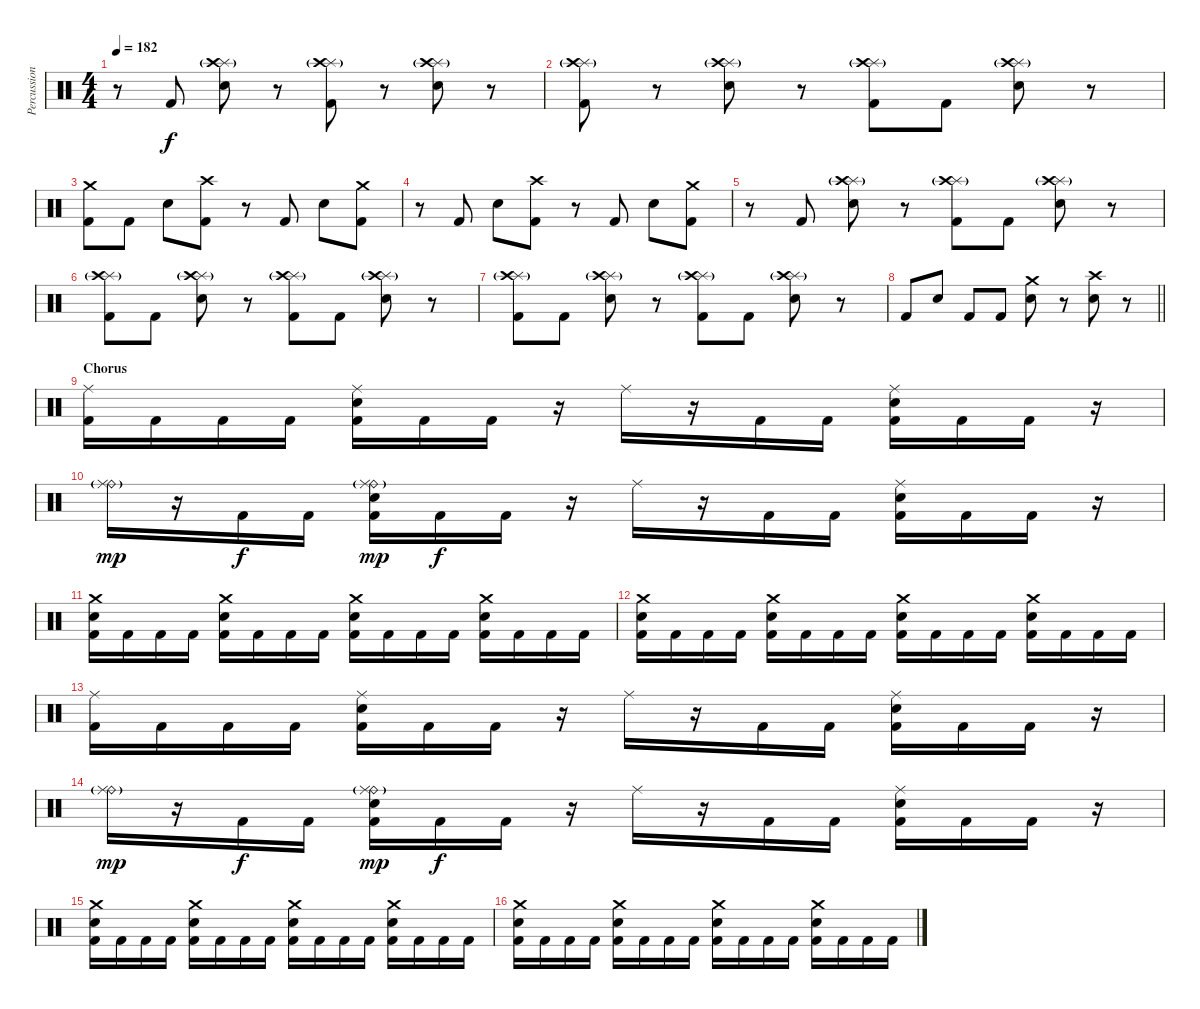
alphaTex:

\track ("Percussion" "Percussion") {instrument percussion}
\staff {score}
\articulation defaults
\ts (4 4)
\tempo 182
\clef neutral
\ks c
r.8{dy f} "Kick (hit) 2".8 ("Splash (hit)"{g} "Crash high (hit)" "Electric Snare (hit)").8 r.8 ("Splash (hit)"{g} "Crash high (hit)" "Kick (hit) 2").8 r.8 ("Splash (hit)"{g} "Crash high (hit)" "Electric Snare (hit)").8 r.8 |
("Splash (hit)"{g} "Crash high (hit)" "Kick (hit) 2").8 r.8 ("Splash (hit)"{g} "Crash high (hit)" "Electric Snare (hit)").8 r.8 ("Splash (hit)"{g} "Crash high (hit)" "Kick (hit) 2").8 "Kick (hit) 2".8 ("Splash (hit)"{g} "Crash high (hit)" "Electric Snare (hit)").8 r.8 |
("Crash medium (hit)" "Kick (hit) 2").8 "Kick (hit) 2".8 "Electric Snare (hit)".8 ("Crash high (hit)" "Kick (hit) 2").8 r.8 "Kick (hit) 2".8 "Electric Snare (hit)".8 ("Crash medium (hit)" "Kick (hit) 2").8 |
r.8 "Kick (hit) 2".8 "Electric Snare (hit)".8 ("Crash high (hit)" "Kick (hit) 2").8 r.8 "Kick (hit) 2".8 "Electric Snare (hit)".8 ("Crash medium (hit)" "Kick (hit) 2").8 |
r.8 "Kick (hit) 2".8 ("Splash (hit)"{g} "Crash high (hit)" "Electric Snare (hit)").8 r.8 ("Splash (hit)"{g} "Crash high (hit)" "Kick (hit) 2").8 "Kick (hit) 2".8 ("Splash (hit)"{g} "Crash high (hit)" "Electric Snare (hit)").8 r.8 |
("Splash (hit)"{g} "Crash high (hit)" "Kick (hit) 2").8 "Kick (hit) 2".8 ("Splash (hit)"{g} "Crash high (hit)" "Electric Snare (hit)").8 r.8 ("Splash (hit)"{g} "Crash high (hit)" "Kick (hit) 2").8 "Kick (hit) 2".8 ("Splash (hit)"{g} "Crash high (hit)" "Electric Snare (hit)").8 r.8 |
("Splash (hit)"{g} "Crash high (hit)" "Kick (hit) 2").8 "Kick (hit) 2".8 ("Splash (hit)"{g} "Crash high (hit)" "Electric Snare (hit)").8 r.8 ("Splash (hit)"{g} "Crash high (hit)" "Kick (hit) 2").8 "Kick (hit) 2".8 ("Splash (hit)"{g} "Crash high (hit)" "Electric Snare (hit)").8 r.8 |
\barLineRight lightlight "Kick (hit) 2".8 "Electric Snare (hit)".8 "Kick (hit) 2".8 "Kick (hit) 2".8
("Crash medium (hit)" "Electric Snare (hit)").8 r.8 ("Crash high (hit)" "Electric Snare (hit)").8 r.8 |
\section ("" "Chorus")
("Ride (middle)" "Kick (hit) 2").16 "Kick (hit) 2".16 "Kick (hit) 2".16 "Kick (hit) 2".16 ("Ride (middle)" "Electric Snare (hit)" "Kick (hit) 2").16 "Kick (hit) 2".16 "Kick (hit) 2".16 r.16 "Ride (middle)".16 r.16 "Kick (hit) 2".16 "Kick (hit) 2".16 ("Ride (middle)" "Electric Snare (hit)" "Kick (hit) 2").16 "Kick (hit) 2".16 "Kick (hit) 2".16 r.16 |
("Ride (bell)"{g} "Ride (middle)").16{dy mp} r.16 "Kick (hit) 2".16{dy f} "Kick (hit) 2".16 ("Ride (bell)"{g} "Ride (middle)" "Electric Snare (hit)" "Kick (hit) 2").16{dy mp} "Kick (hit) 2".16{dy f} "Kick (hit) 2".16 r.16 "Ride (middle)".16 r.16 "Kick (hit) 2".16 "Kick (hit) 2".16 ("Ride (middle)" "Electric Snare (hit)" "Kick (hit) 2").16 "Kick (hit) 2".16 "Kick (hit) 2".16 r.16 |
("Crash medium (hit)" "Electric Snare (hit)" "Kick (hit) 2").16 "Kick (hit) 2".16 "Kick (hit) 2".16 "Kick (hit) 2".16 ("Crash medium (hit)" "Electric Snare (hit)" "Kick (hit) 2").16 "Kick (hit) 2".16 "Kick (hit) 2".16 "Kick (hit) 2".16 ("Crash medium (hit)" "Electric Snare (hit)" "Kick (hit) 2").16 "Kick (hit) 2".16 "Kick (hit) 2".16 "Kick (hit) 2".16 ("Crash medium (hit)" "Electric Snare (hit)" "Kick (hit) 2").16 "Kick (hit) 2".16 "Kick (hit) 2".16 "Kick (hit) 2".16 |
("Crash medium (hit)" "Electric Snare (hit)" "Kick (hit) 2").16 "Kick (hit) 2".16 "Kick (hit) 2".16 "Kick (hit) 2".16 ("Crash medium (hit)" "Electric Snare (hit)" "Kick (hit) 2").16 "Kick (hit) 2".16 "Kick (hit) 2".16 "Kick (hit) 2".16 ("Crash medium (hit)" "Electric Snare (hit)" "Kick (hit) 2").16 "Kick (hit) 2".16 "Kick (hit) 2".16 "Kick (hit) 2".16 ("Crash medium (hit)" "Electric Snare (hit)" "Kick (hit) 2").16 "Kick (hit) 2".16 "Kick (hit) 2".16 "Kick (hit) 2".16 |
("Ride (middle)" "Kick (hit) 2").16 "Kick (hit) 2".16 "Kick (hit) 2".16 "Kick (hit) 2".16 ("Ride (middle)" "Electric Snare (hit)" "Kick (hit) 2").16 "Kick (hit) 2".16 "Kick (hit) 2".16 r.16 "Ride (middle)".16 r.16 "Kick (hit) 2".16 "Kick (hit) 2".16 ("Ride (middle)" "Electric Snare (hit)" "Kick (hit) 2").16 "Kick (hit) 2".16 "Kick (hit) 2".16 r.16 |
("Ride (bell)"{g} "Ride (middle)").16{dy mp} r.16 "Kick (hit) 2".16{dy f} "Kick (hit) 2".16 ("Ride (bell)"{g} "Ride (middle)" "Electric Snare (hit)" "Kick (hit) 2").16{dy mp} "Kick (hit) 2".16{dy f} "Kick (hit) 2".16 r.16 "Ride (middle)".16 r.16 "Kick (hit) 2".16 "Kick (hit) 2".16 ("Ride (middle)" "Electric Snare (hit)" "Kick (hit) 2").16 "Kick (hit) 2".16 "Kick (hit) 2".16 r.16 |
("Crash medium (hit)" "Electric Snare (hit)" "Kick (hit) 2").16 "Kick (hit) 2".16 "Kick (hit) 2".16 "Kick (hit) 2".16 ("Crash medium (hit)" "Electric Snare (hit)" "Kick (hit) 2").16 "Kick (hit) 2".16 "Kick (hit) 2".16 "Kick (hit) 2".16 ("Crash medium (hit)" "Electric Snare (hit)" "Kick (hit) 2").16 "Kick (hit) 2".16 "Kick (hit) 2".16 "Kick (hit) 2".16 ("Crash medium (hit)" "Electric Snare (hit)" "Kick (hit) 2").16 "Kick (hit) 2".16 "Kick (hit) 2".16 "Kick (hit) 2".16 |
("Crash medium (hit)" "Electric Snare (hit)" "Kick (hit) 2").16 "Kick (hit) 2".16 "Kick (hit) 2".16 "Kick (hit) 2".16 ("Crash medium (hit)" "Electric Snare (hit)" "Kick (hit) 2").16 "Kick (hit) 2".16 "Kick (hit) 2".16 "Kick (hit) 2".16 ("Crash medium (hit)" "Electric Snare (hit)" "Kick (hit) 2").16 "Kick (hit) 2".16 "Kick (hit) 2".16 "Kick (hit) 2".16 ("Crash medium (hit)" "Electric Snare (hit)" "Kick (hit) 2").16 "Kick (hit) 2".16 "Kick (hit) 2".16 "Kick (hit) 2".16
